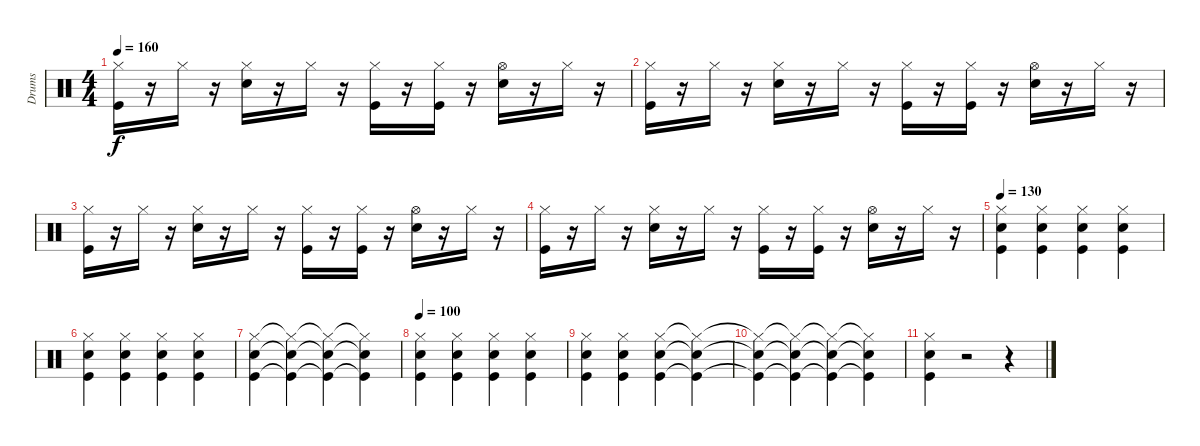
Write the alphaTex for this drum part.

\track ("Drums" "Drums") {instrument percussion}
\staff {score}
\articulation defaults
\ts (4 4)
\tempo 160
\clef neutral
\ks c
("Hi-Hat (closed)" "Kick (hit)").16{dy f} r.16 "Hi-Hat (closed)".16 r.16 ("Hi-Hat (closed)" "Snare (hit) 2").16 r.16 "Hi-Hat (closed)".16 r.16 ("Hi-Hat (closed)" "Kick (hit)").16 r.16 ("Kick (hit)" "Hi-Hat (closed)").16 r.16 ("Hi-Hat (open)" "Snare (hit) 2").16 r.16 "Hi-Hat (closed)".16 r.16 |
("Hi-Hat (closed)" "Kick (hit)").16 r.16 "Hi-Hat (closed)".16 r.16 ("Hi-Hat (closed)" "Snare (hit) 2").16 r.16 "Hi-Hat (closed)".16 r.16 ("Hi-Hat (closed)" "Kick (hit)").16 r.16 ("Kick (hit)" "Hi-Hat (closed)").16 r.16 ("Hi-Hat (open)" "Snare (hit) 2").16 r.16 "Hi-Hat (closed)".16 r.16 |
("Hi-Hat (closed)" "Kick (hit)").16 r.16 "Hi-Hat (closed)".16 r.16 ("Hi-Hat (closed)" "Snare (hit) 2").16 r.16 "Hi-Hat (closed)".16 r.16 ("Hi-Hat (closed)" "Kick (hit)").16 r.16 ("Kick (hit)" "Hi-Hat (closed)").16 r.16 ("Hi-Hat (open)" "Snare (hit) 2").16 r.16 "Hi-Hat (closed)".16 r.16 |
("Hi-Hat (closed)" "Kick (hit)").16 r.16 "Hi-Hat (closed)".16 r.16 ("Hi-Hat (closed)" "Snare (hit) 2").16 r.16 "Hi-Hat (closed)".16 r.16 ("Hi-Hat (closed)" "Kick (hit)").16 r.16 ("Kick (hit)" "Hi-Hat (closed)").16 r.16 ("Hi-Hat (open)" "Snare (hit) 2").16 r.16 "Hi-Hat (closed)".16 r.16 |
\tempo 140
\tempo 130
("Hi-Hat (closed)" "Kick (hit)" "Snare (hit) 2").4 ("Hi-Hat (closed)" "Kick (hit)" "Snare (hit) 2").4 ("Hi-Hat (closed)" "Kick (hit)" "Snare (hit) 2").4 ("Hi-Hat (closed)" "Kick (hit)" "Snare (hit) 2").4 |
("Hi-Hat (closed)" "Kick (hit)" "Snare (hit) 2").4 ("Hi-Hat (closed)" "Kick (hit)" "Snare (hit) 2").4 ("Hi-Hat (closed)" "Kick (hit)" "Snare (hit) 2").4 ("Hi-Hat (closed)" "Kick (hit)" "Snare (hit) 2").4 |
("Hi-Hat (closed)" "Kick (hit)" "Snare (hit) 2").4 ("Hi-Hat (closed)"{t} "Kick (hit)"{t} "Snare (hit) 2"{t}).4 ("Hi-Hat (closed)"{t} "Kick (hit)"{t} "Snare (hit) 2"{t}).4 ("Hi-Hat (closed)"{t} "Kick (hit)"{t} "Snare (hit) 2"{t}).4 |
\tempo 120
\tempo 100
("Hi-Hat (closed)" "Kick (hit)" "Snare (hit) 2").4 ("Hi-Hat (closed)" "Kick (hit)" "Snare (hit) 2").4 ("Hi-Hat (closed)" "Kick (hit)" "Snare (hit) 2").4 ("Hi-Hat (closed)" "Kick (hit)" "Snare (hit) 2").4 |
("Hi-Hat (closed)" "Kick (hit)" "Snare (hit) 2").4 ("Hi-Hat (closed)" "Kick (hit)" "Snare (hit) 2").4 ("Hi-Hat (closed)" "Kick (hit)" "Snare (hit) 2").4 ("Hi-Hat (closed)"{t} "Kick (hit)"{t} "Snare (hit) 2"{t}).4 |
("Hi-Hat (closed)"{t} "Kick (hit)"{t} "Snare (hit) 2"{t}).4 ("Hi-Hat (closed)"{t} "Kick (hit)"{t} "Snare (hit) 2"{t}).4 ("Hi-Hat (closed)"{t} "Kick (hit)"{t} "Snare (hit) 2"{t}).4 ("Hi-Hat (closed)"{t} "Kick (hit)"{t} "Snare (hit) 2"{t}).4 |
("Hi-Hat (closed)" "Snare (hit) 2" "Kick (hit)").4 r.2 r.4
